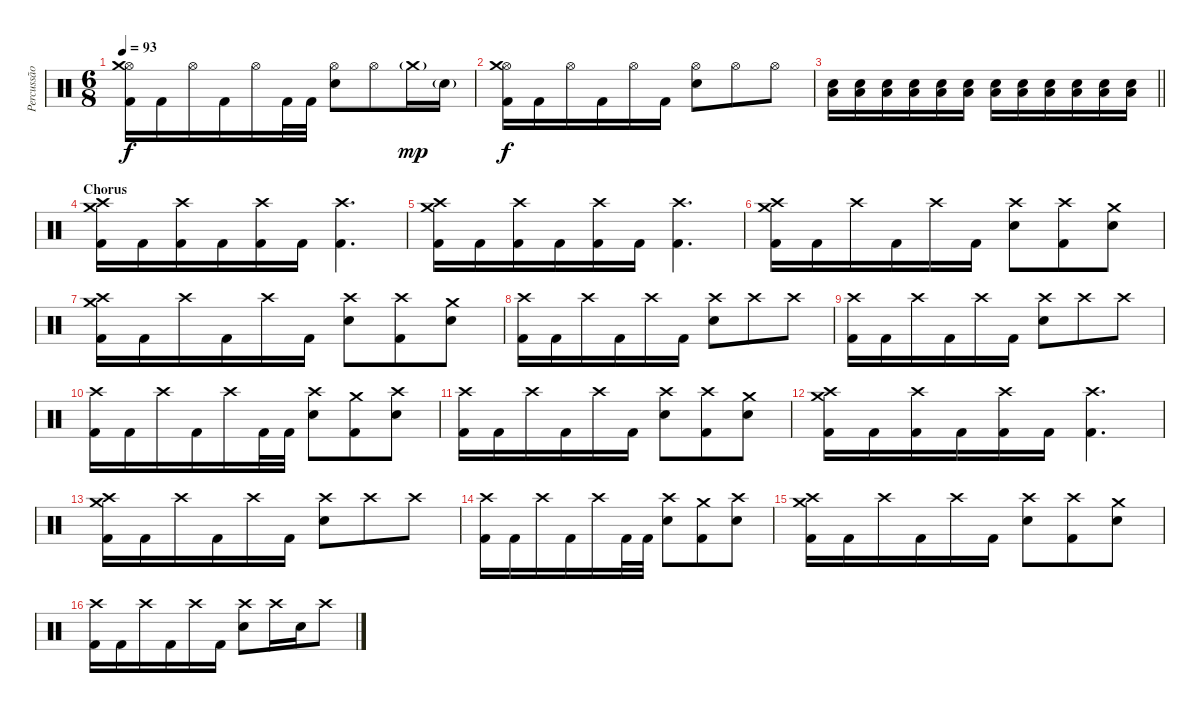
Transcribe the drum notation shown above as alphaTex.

\track ("Percussão" "Percussão") {instrument percussion}
\staff {score}
\articulation defaults
\ts (6 8)
\tempo 93
\clef neutral
\ks c
("Hi-Hat (open)" "Crash medium (hit)" "Kick (hit) 2").16{dy f} "Kick (hit) 2".16 "Hi-Hat (open)".16 "Kick (hit) 2".16 "Hi-Hat (open)".16 "Kick (hit) 2".32 "Kick (hit) 2".32 ("Hi-Hat (open)" "Snare (hit) 2").8 "Hi-Hat (open)".8 "Crash medium (hit)"{g}.16{dy mp} "Snare (hit) 2"{g}.16 |
("Hi-Hat (open)" "Crash medium (hit)" "Kick (hit) 2").16{dy f} "Kick (hit) 2".16 "Hi-Hat (open)".16 "Kick (hit) 2".16 "Hi-Hat (open)".16 "Kick (hit) 2".16 ("Hi-Hat (open)" "Snare (hit) 2").8 "Hi-Hat (open)".8 "Hi-Hat (open)".8 |
\barLineRight lightlight
("Low Tom (hit)" "Snare (hit) 2").16 ("Low Tom (hit)" "Snare (hit) 2").16 ("Low Tom (hit)" "Snare (hit) 2").16 ("Low Tom (hit)" "Snare (hit) 2").16 ("Low Tom (hit)" "Snare (hit) 2").16 ("Low Tom (hit)" "Snare (hit) 2").16 ("Low Tom (hit)" "Snare (hit) 2").16 ("Low Tom (hit)" "Snare (hit) 2").16 ("Low Tom (hit)" "Snare (hit) 2").16 ("Low Tom (hit)" "Snare (hit) 2").16 ("Low Tom (hit)" "Snare (hit) 2").16 ("Low Tom (hit)" "Snare (hit) 2").16 |
\section ("" "Chorus")
("Crash high (hit)" "Crash medium (hit)" "Kick (hit) 2").16 "Kick (hit) 2".16 ("Crash high (hit)" "Kick (hit) 2").16 "Kick (hit) 2".16 ("Crash high (hit)" "Kick (hit) 2").16 "Kick (hit) 2".16 ("Crash high (hit)" "Kick (hit) 2").4{d} |
("Crash high (hit)" "Crash medium (hit)" "Kick (hit) 2").16 "Kick (hit) 2".16 ("Crash high (hit)" "Kick (hit) 2").16 "Kick (hit) 2".16 ("Crash high (hit)" "Kick (hit) 2").16 "Kick (hit) 2".16 ("Crash high (hit)" "Kick (hit) 2").4{d} |
("Crash high (hit)" "Crash medium (hit)" "Kick (hit) 2").16 "Kick (hit) 2".16 "Crash high (hit)".16 "Kick (hit) 2".16 "Crash high (hit)".16 "Kick (hit) 2".16 ("Snare (hit) 2" "Crash high (hit)").8 ("Crash high (hit)" "Kick (hit) 2").8 ("Crash medium (hit)" "Snare (hit) 2").8 |
("Crash high (hit)" "Crash medium (hit)" "Kick (hit) 2").16 "Kick (hit) 2".16 "Crash high (hit)".16 "Kick (hit) 2".16 "Crash high (hit)".16 "Kick (hit) 2".16 ("Snare (hit) 2" "Crash high (hit)").8 ("Crash high (hit)" "Kick (hit) 2").8 ("Crash medium (hit)" "Snare (hit) 2").8 |
("Crash high (hit)" "Kick (hit) 2").16 "Kick (hit) 2".16 "Crash high (hit)".16 "Kick (hit) 2".16 "Crash high (hit)".16 "Kick (hit) 2".16 ("Crash high (hit)" "Snare (hit) 2").8 "Crash high (hit)".8 "Crash high (hit)".8 |
("Crash high (hit)" "Kick (hit) 2").16 "Kick (hit) 2".16 "Crash high (hit)".16 "Kick (hit) 2".16 "Crash high (hit)".16 "Kick (hit) 2".16 ("Crash high (hit)" "Snare (hit) 2").8 "Crash high (hit)".8 "Crash high (hit)".8 |
("Crash high (hit)" "Kick (hit) 2").16 "Kick (hit) 2".16 "Crash high (hit)".16 "Kick (hit) 2".16 "Crash high (hit)".16 "Kick (hit) 2".32 "Kick (hit) 2".32 ("Crash high (hit)" "Snare (hit) 2").8 ("Crash medium (hit)" "Kick (hit) 2").8 ("Snare (hit) 2" "Crash high (hit)").8 |
("Crash high (hit)" "Kick (hit) 2").16 "Kick (hit) 2".16 "Crash high (hit)".16 "Kick (hit) 2".16 "Crash high (hit)".16 "Kick (hit) 2".16 ("Crash high (hit)" "Snare (hit) 2").8 ("Crash high (hit)" "Kick (hit) 2").8 ("Crash medium (hit)" "Snare (hit) 2").8 |
("Crash high (hit)" "Crash medium (hit)" "Kick (hit) 2").16 "Kick (hit) 2".16 ("Crash high (hit)" "Kick (hit) 2").16 "Kick (hit) 2".16 ("Crash high (hit)" "Kick (hit) 2").16 "Kick (hit) 2".16 ("Crash high (hit)" "Kick (hit) 2").4{d} |
("Crash high (hit)" "Crash medium (hit)" "Kick (hit) 2").16 "Kick (hit) 2".16 "Crash high (hit)".16 "Kick (hit) 2".16 "Crash high (hit)".16 "Kick (hit) 2".16 ("Crash high (hit)" "Snare (hit) 2").8 "Crash high (hit)".8 "Crash high (hit)".8 |
("Crash high (hit)" "Kick (hit) 2").16 "Kick (hit) 2".16 "Crash high (hit)".16 "Kick (hit) 2".16 "Crash high (hit)".16 "Kick (hit) 2".32 "Kick (hit) 2".32 ("Crash high (hit)" "Snare (hit) 2").8 ("Crash medium (hit)" "Kick (hit) 2").8 ("Snare (hit) 2" "Crash high (hit)").8 |
("Crash high (hit)" "Crash medium (hit)" "Kick (hit) 2").16 "Kick (hit) 2".16 "Crash high (hit)".16 "Kick (hit) 2".16 "Crash high (hit)".16 "Kick (hit) 2".16 ("Snare (hit) 2" "Crash high (hit)").8 ("Crash high (hit)" "Kick (hit) 2").8 ("Crash medium (hit)" "Snare (hit) 2").8 |
("Crash high (hit)" "Kick (hit) 2").16 "Kick (hit) 2".16 "Crash high (hit)".16 "Kick (hit) 2".16 "Crash high (hit)".16 "Kick (hit) 2".16 ("Crash high (hit)" "Snare (hit) 2").8 "Crash high (hit)".16 "Snare (hit) 2".16 "Crash high (hit)".8
